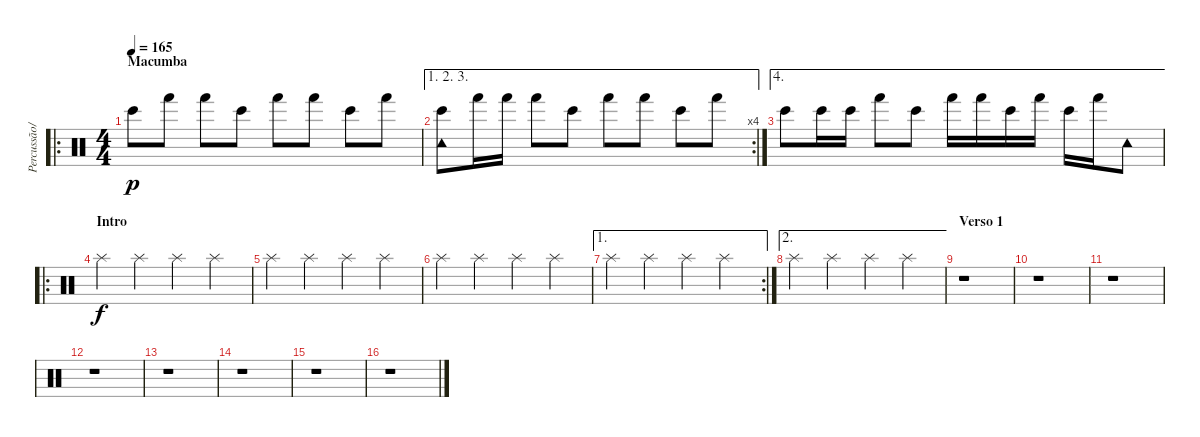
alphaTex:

\track ("Percussão/DJ" "Percussão/") {instrument percussion}
\staff {score}
\articulation defaults
\ro
\ts (4 4)
\section ("" "Macumba")
\tempo 165
\clef neutral
\ks c "Bongo High (hit)".8{dy p} "Hand (hit)".8 "Hand (hit)".8 "Bongo High (hit)".8 "Hand (hit)".8 "Hand (hit)".8 "Bongo High (hit)".8 "Hand (hit)".8
|
\ae (1 2 3)
\rc 4
("Tambourine (hit)" "Bongo High (hit)").8 "Hand (hit)".16 "Hand (hit)".16 "Hand (hit)".8 "Bongo High (hit)".8 "Hand (hit)".8 "Hand (hit)".8 "Bongo High (hit)".8 "Hand (hit)".8 |
\ae 4 "Bongo High (hit)".8 "Bongo High (hit)".16 "Bongo High (hit)".16 "Hand (hit)".8 "Bongo High (hit)".8 "Hand (hit)".16 "Hand (hit)".16 "Bongo High (hit)".16 "Hand (hit)".16 "Bongo High (hit)".16 "Hand (hit)".16 "Tambourine (hit)".8
|
\ro
\section ("" "Intro")
"Splash (hit)".4{dy f} "Splash (hit)".4 "Splash (hit)".4 "Splash (hit)".4 |
"Splash (hit)".4 "Splash (hit)".4 "Splash (hit)".4 "Splash (hit)".4 |
"Splash (hit)".4 "Splash (hit)".4 "Splash (hit)".4 "Splash (hit)".4 |
\ae 1
\rc 2 "Splash (hit)".4 "Splash (hit)".4 "Splash (hit)".4 "Splash (hit)".4
|
\ae 2 "Splash (hit)".4 "Splash (hit)".4 "Splash (hit)".4 "Splash (hit)".4
|
\section ("" "Verso 1")
r.1 |
r.1 |
r.1 |
r.1 |
r.1 |
r.1 |
r.1 |
r.1
